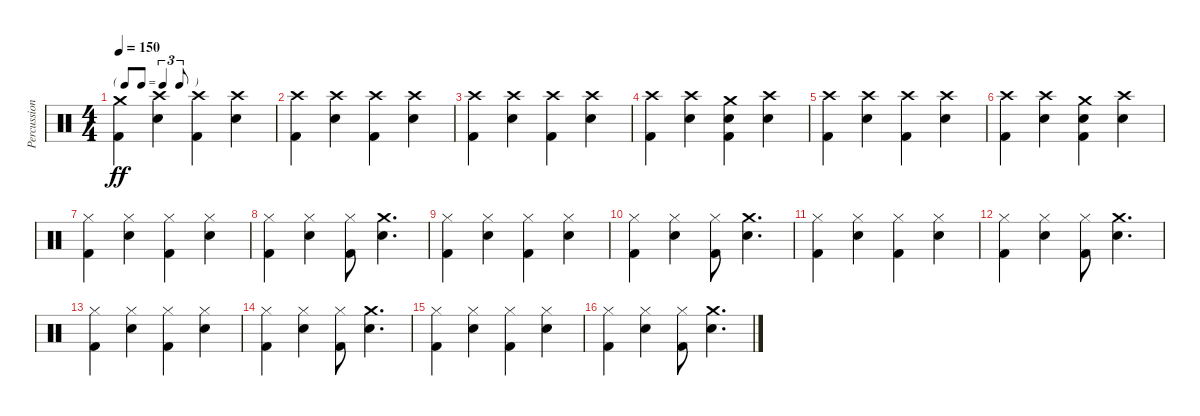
\track ("Percussion" "Percussion") {instrument percussion}
\staff {score}
\articulation defaults
\ts (4 4)
\tf triplet8th
\tempo 150
\clef neutral
\ks c
("Crash medium (hit)" "Kick (hit) 2").4{dy ff} ("Crash high (hit)" "Electric Snare (hit)").4 ("Crash high (hit)" "Kick (hit) 2").4 ("Crash high (hit)" "Electric Snare (hit)").4 |
("Crash high (hit)" "Kick (hit) 2").4 ("Crash high (hit)" "Electric Snare (hit)").4 ("Crash high (hit)" "Kick (hit) 2").4 ("Crash high (hit)" "Electric Snare (hit)").4 |
("Crash high (hit)" "Kick (hit) 2").4 ("Crash high (hit)" "Electric Snare (hit)").4 ("Crash high (hit)" "Kick (hit) 2").4 ("Crash high (hit)" "Electric Snare (hit)").4 |
("Crash high (hit)" "Kick (hit) 2").4 ("Crash high (hit)" "Electric Snare (hit)").4 ("Crash medium (hit)" "Electric Snare (hit)" "Kick (hit) 2").4 ("Crash high (hit)" "Electric Snare (hit)").4 |
("Crash high (hit)" "Kick (hit) 2").4 ("Crash high (hit)" "Electric Snare (hit)").4 ("Crash high (hit)" "Kick (hit) 2").4 ("Crash high (hit)" "Electric Snare (hit)").4 |
("Crash high (hit)" "Kick (hit) 2").4 ("Crash high (hit)" "Electric Snare (hit)").4 ("Crash medium (hit)" "Electric Snare (hit)" "Kick (hit) 2").4 ("Crash high (hit)" "Electric Snare (hit)").4 |
("Hi-Hat (closed)" "Kick (hit) 2").4 ("Hi-Hat (closed)" "Electric Snare (hit)").4 ("Hi-Hat (closed)" "Kick (hit) 2").4 ("Hi-Hat (closed)" "Electric Snare (hit)").4 |
("Hi-Hat (closed)" "Kick (hit) 2").4 ("Hi-Hat (closed)" "Electric Snare (hit)").4 ("Hi-Hat (closed)" "Kick (hit) 2").8 ("Crash medium (hit)" "Electric Snare (hit)").4{d} |
("Hi-Hat (closed)" "Kick (hit) 2").4 ("Hi-Hat (closed)" "Electric Snare (hit)").4 ("Hi-Hat (closed)" "Kick (hit) 2").4 ("Hi-Hat (closed)" "Electric Snare (hit)").4 |
("Hi-Hat (closed)" "Kick (hit) 2").4 ("Hi-Hat (closed)" "Electric Snare (hit)").4 ("Hi-Hat (closed)" "Kick (hit) 2").8 ("Crash medium (hit)" "Electric Snare (hit)").4{d} |
("Hi-Hat (closed)" "Kick (hit) 2").4 ("Hi-Hat (closed)" "Electric Snare (hit)").4 ("Hi-Hat (closed)" "Kick (hit) 2").4 ("Hi-Hat (closed)" "Electric Snare (hit)").4 |
("Hi-Hat (closed)" "Kick (hit) 2").4 ("Hi-Hat (closed)" "Electric Snare (hit)").4 ("Hi-Hat (closed)" "Kick (hit) 2").8 ("Crash medium (hit)" "Electric Snare (hit)").4{d} |
("Hi-Hat (closed)" "Kick (hit) 2").4 ("Hi-Hat (closed)" "Electric Snare (hit)").4 ("Hi-Hat (closed)" "Kick (hit) 2").4 ("Hi-Hat (closed)" "Electric Snare (hit)").4 |
("Hi-Hat (closed)" "Kick (hit) 2").4 ("Hi-Hat (closed)" "Electric Snare (hit)").4 ("Hi-Hat (closed)" "Kick (hit) 2").8 ("Crash medium (hit)" "Electric Snare (hit)").4{d} |
("Hi-Hat (closed)" "Kick (hit) 2").4 ("Hi-Hat (closed)" "Electric Snare (hit)").4 ("Hi-Hat (closed)" "Kick (hit) 2").4 ("Hi-Hat (closed)" "Electric Snare (hit)").4 |
("Hi-Hat (closed)" "Kick (hit) 2").4 ("Hi-Hat (closed)" "Electric Snare (hit)").4 ("Hi-Hat (closed)" "Kick (hit) 2").8 ("Crash medium (hit)" "Electric Snare (hit)").4{d}
